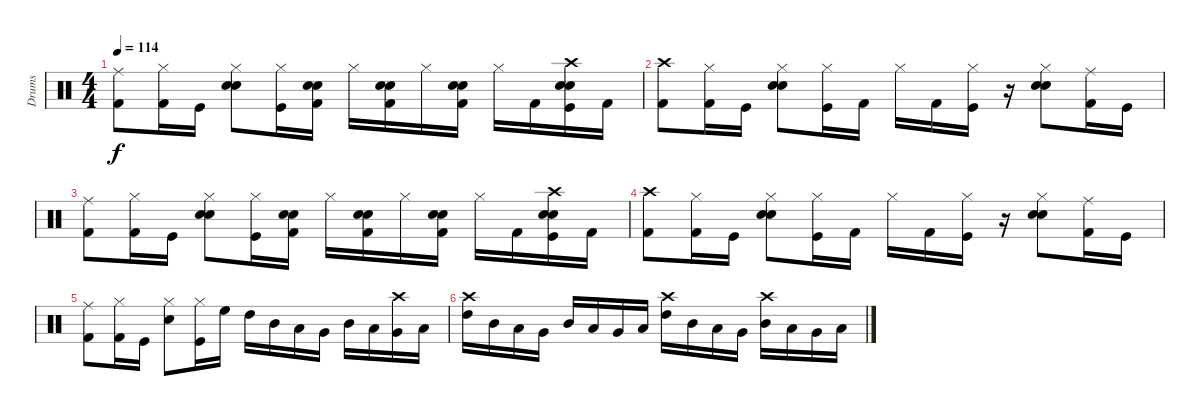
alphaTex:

\track ("Drums" "Drums") {instrument percussion}
\staff {score}
\articulation defaults
\ts (4 4)
\tempo 114
\clef neutral
\ks c
("Ride (middle)" "Kick (hit) 2").8{dy f} ("Hi-Hat (closed)" "Kick (hit) 2").16 "Kick (hit)".16 ("Hi-Hat (closed)" "Electric Snare (hit)" "Snare (hit) 2").8 ("Hi-Hat (closed)" "Kick (hit)").16 ("Electric Snare (hit)" "Snare (hit) 2" "Kick (hit) 2").16 "Hi-Hat (closed)".16 ("Electric Snare (hit)" "Snare (hit) 2" "Kick (hit) 2").16 "Hi-Hat (closed)".16 ("Electric Snare (hit)" "Snare (hit) 2" "Kick (hit) 2").16 "Hi-Hat (closed)".16 "Kick (hit) 2".16 ("Crash high (hit)" "Electric Snare (hit)" "Snare (hit) 2" "Kick (hit)").16 "Kick (hit) 2".16 |
("Crash high (hit)" "Kick (hit) 2").8 ("Hi-Hat (closed)" "Kick (hit) 2").16 "Kick (hit)".16 ("Hi-Hat (closed)" "Electric Snare (hit)" "Snare (hit) 2").8 ("Hi-Hat (closed)" "Kick (hit)").16 "Kick (hit) 2".16 "Hi-Hat (closed)".16 "Kick (hit) 2".16 ("Hi-Hat (closed)" "Kick (hit)").16 r.16 ("Hi-Hat (closed)" "Electric Snare (hit)" "Snare (hit) 2").8 ("Ride (middle)" "Kick (hit) 2").16 "Kick (hit)".16 |
("Ride (middle)" "Kick (hit) 2").8 ("Hi-Hat (closed)" "Kick (hit) 2").16 "Kick (hit)".16 ("Hi-Hat (closed)" "Electric Snare (hit)" "Snare (hit) 2").8 ("Hi-Hat (closed)" "Kick (hit)").16 ("Electric Snare (hit)" "Snare (hit) 2" "Kick (hit) 2").16 "Hi-Hat (closed)".16 ("Electric Snare (hit)" "Snare (hit) 2" "Kick (hit) 2").16 "Hi-Hat (closed)".16 ("Electric Snare (hit)" "Snare (hit) 2" "Kick (hit) 2").16 "Hi-Hat (closed)".16 "Kick (hit) 2".16 ("Crash high (hit)" "Electric Snare (hit)" "Snare (hit) 2" "Kick (hit)").16 "Kick (hit) 2".16 |
("Crash high (hit)" "Kick (hit) 2").8 ("Hi-Hat (closed)" "Kick (hit) 2").16 "Kick (hit)".16 ("Hi-Hat (closed)" "Electric Snare (hit)" "Snare (hit) 2").8 ("Hi-Hat (closed)" "Kick (hit)").16 "Kick (hit) 2".16 "Hi-Hat (closed)".16 "Kick (hit) 2".16 ("Hi-Hat (closed)" "Kick (hit)").16 r.16 ("Hi-Hat (closed)" "Electric Snare (hit)" "Snare (hit) 2").8 ("Ride (middle)" "Kick (hit) 2").16 "Kick (hit)".16 |
("Ride (middle)" "Kick (hit) 2").8 ("Hi-Hat (closed)" "Kick (hit) 2").16 "Kick (hit)".16 ("Hi-Hat (closed)" "Snare (hit) 2").8 ("Hi-Hat (closed)" "Kick (hit)").16 "High Floor Tom (hit)".16 "High Tom (hit)".16 "Mid Tom (hit)".16 "Low Tom (hit)".16 "Very Low Tom (hit)".16 "Mid Tom (hit)".16 "Low Tom (hit)".16 ("Crash high (hit)" "Very Low Tom (hit)").16 "Low Floor Tom (hit)".16 |
("Crash high (hit)" "High Tom (hit)").16 "Mid Tom (hit)".16 "Low Tom (hit)".16 "Very Low Tom (hit)".16 "Mid Tom (hit)".16 "Low Tom (hit)".16 "Very Low Tom (hit)".16 "Low Floor Tom (hit)".16 ("Crash high (hit)" "High Tom (hit)").16 "Mid Tom (hit)".16 "Low Tom (hit)".16 "Very Low Tom (hit)".16 ("Crash high (hit)" "Mid Tom (hit)").16 "Low Tom (hit)".16 "Very Low Tom (hit)".16 "Low Floor Tom (hit)".16
